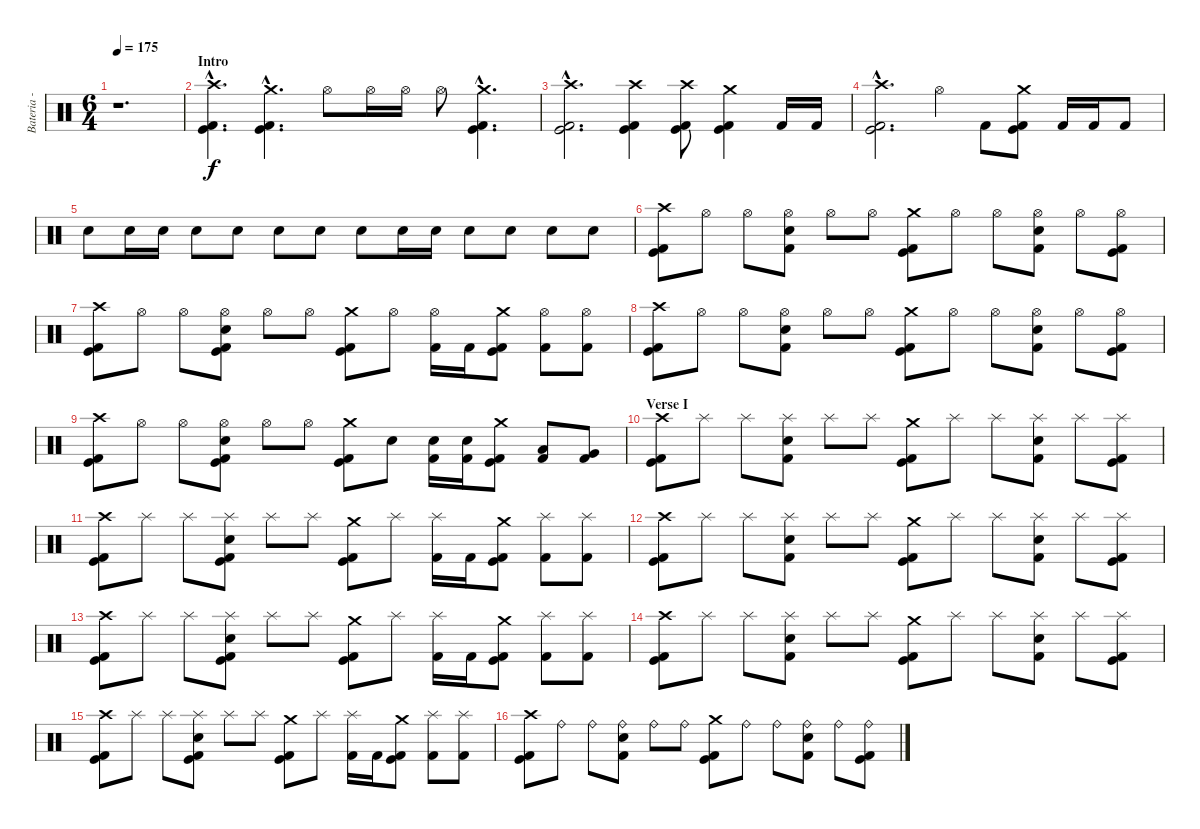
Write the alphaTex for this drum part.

\track ("Bateria - Drums" "Bateria - ") {instrument percussion}
\staff {score}
\articulation defaults
\ts (6 4)
\tempo 175
\clef neutral
\ks c
r.1{d dy f} |
\section ("" "Intro")
("Crash high (hit)"{hac} "Kick (hit)"{hac} "Kick (hit) 2"{hac}).4{d} ("Crash medium (hit)"{hac} "Kick (hit)"{hac} "Kick (hit) 2"{hac}).4{d} "Hi-Hat (open)".8 "Hi-Hat (open)".16 "Hi-Hat (open)".16 "Hi-Hat (open)".8 ("Crash medium (hit)"{hac} "Kick (hit)"{hac} "Kick (hit) 2"{hac}).4{d} |
("Crash high (hit)"{hac} "Kick (hit)"{hac} "Kick (hit) 2"{hac}).2{d} ("Crash high (hit)" "Kick (hit)" "Kick (hit) 2").4 ("Crash high (hit)" "Kick (hit)" "Kick (hit) 2").8 ("Crash medium (hit)" "Kick (hit)" "Kick (hit) 2").4 "Kick (hit) 2".16 "Kick (hit) 2".16 |
("Crash high (hit)"{hac} "Kick (hit)"{hac} "Kick (hit) 2"{hac}).2{d} "Hi-Hat (open)".4 "Kick (hit) 2".8 ("Crash medium (hit)" "Kick (hit)" "Kick (hit) 2").8 "Kick (hit) 2".16 "Kick (hit) 2".16 "Kick (hit) 2".8 |
"Snare (hit) 2".8 "Snare (hit) 2".16 "Snare (hit) 2".16 "Snare (hit) 2".8 "Snare (hit) 2".8 "Snare (hit) 2".8 "Snare (hit) 2".8 "Snare (hit) 2".8 "Snare (hit) 2".16 "Snare (hit) 2".16 "Snare (hit) 2".8 "Snare (hit) 2".8 "Snare (hit) 2".8 "Snare (hit) 2".8 |
("Crash high (hit)" "Kick (hit)" "Kick (hit) 2").8 "Hi-Hat (open)".8 "Hi-Hat (open)".8 ("Hi-Hat (open)" "Snare (hit) 2" "Kick (hit) 2").8 "Hi-Hat (open)".8 "Hi-Hat (open)".8 ("Crash medium (hit)" "Kick (hit)" "Kick (hit) 2").8 "Hi-Hat (open)".8 "Hi-Hat (open)".8 ("Hi-Hat (open)" "Snare (hit) 2" "Kick (hit) 2").8 "Hi-Hat (open)".8 ("Hi-Hat (open)" "Kick (hit)" "Kick (hit) 2").8 |
("Crash high (hit)" "Kick (hit)" "Kick (hit) 2").8 "Hi-Hat (open)".8 "Hi-Hat (open)".8 ("Hi-Hat (open)" "Snare (hit) 2" "Kick (hit)" "Kick (hit) 2").8 "Hi-Hat (open)".8 "Hi-Hat (open)".8 ("Crash medium (hit)" "Kick (hit)" "Kick (hit) 2").8 "Hi-Hat (open)".8 ("Hi-Hat (open)" "Kick (hit) 2").16 "Kick (hit) 2".16 ("Crash medium (hit)" "Kick (hit)" "Kick (hit) 2").8 ("Hi-Hat (open)" "Kick (hit) 2").8 ("Hi-Hat (open)" "Kick (hit) 2").8 |
("Crash high (hit)" "Kick (hit)" "Kick (hit) 2").8 "Hi-Hat (open)".8 "Hi-Hat (open)".8 ("Hi-Hat (open)" "Snare (hit) 2" "Kick (hit) 2").8 "Hi-Hat (open)".8 "Hi-Hat (open)".8 ("Crash medium (hit)" "Kick (hit)" "Kick (hit) 2").8 "Hi-Hat (open)".8 "Hi-Hat (open)".8 ("Hi-Hat (open)" "Snare (hit) 2" "Kick (hit) 2").8 "Hi-Hat (open)".8 ("Hi-Hat (open)" "Kick (hit)" "Kick (hit) 2").8 |
("Crash high (hit)" "Kick (hit)" "Kick (hit) 2").8 "Hi-Hat (open)".8 "Hi-Hat (open)".8 ("Hi-Hat (open)" "Snare (hit) 2" "Kick (hit)" "Kick (hit) 2").8 "Hi-Hat (open)".8 "Hi-Hat (open)".8 ("Crash medium (hit)" "Kick (hit)" "Kick (hit) 2").8 "Snare (hit) 2".8 ("Snare (hit) 2" "Kick (hit) 2").16 ("Snare (hit) 2" "Kick (hit) 2").16 ("Crash medium (hit)" "Kick (hit)" "Kick (hit) 2").8 ("Low Tom (hit)" "Kick (hit) 2").8 ("Very Low Tom (hit)" "Kick (hit) 2").8 |
\section ("" "Verse I")
("Crash high (hit)" "Kick (hit)" "Kick (hit) 2").8 "Splash (hit)".8 "Splash (hit)".8 ("Splash (hit)" "Snare (hit) 2" "Kick (hit) 2").8 "Splash (hit)".8 "Splash (hit)".8 ("Crash medium (hit)" "Kick (hit)" "Kick (hit) 2").8 "Splash (hit)".8 "Splash (hit)".8 ("Splash (hit)" "Snare (hit) 2" "Kick (hit) 2").8 "Splash (hit)".8 ("Splash (hit)" "Kick (hit)" "Kick (hit) 2").8 |
("Crash high (hit)" "Kick (hit)" "Kick (hit) 2").8 "Splash (hit)".8 "Splash (hit)".8 ("Splash (hit)" "Snare (hit) 2" "Kick (hit)" "Kick (hit) 2").8 "Splash (hit)".8 "Splash (hit)".8 ("Crash medium (hit)" "Kick (hit)" "Kick (hit) 2").8 "Splash (hit)".8 ("Splash (hit)" "Kick (hit) 2").16 "Kick (hit) 2".16 ("Crash medium (hit)" "Kick (hit)" "Kick (hit) 2").8 ("Splash (hit)" "Kick (hit) 2").8 ("Splash (hit)" "Kick (hit) 2").8 |
("Crash high (hit)" "Kick (hit)" "Kick (hit) 2").8 "Splash (hit)".8 "Splash (hit)".8 ("Splash (hit)" "Snare (hit) 2" "Kick (hit) 2").8 "Splash (hit)".8 "Splash (hit)".8 ("Crash medium (hit)" "Kick (hit)" "Kick (hit) 2").8 "Splash (hit)".8 "Splash (hit)".8 ("Splash (hit)" "Snare (hit) 2" "Kick (hit) 2").8 "Splash (hit)".8 ("Splash (hit)" "Kick (hit)" "Kick (hit) 2").8 |
("Crash high (hit)" "Kick (hit)" "Kick (hit) 2").8 "Splash (hit)".8 "Splash (hit)".8 ("Splash (hit)" "Snare (hit) 2" "Kick (hit)" "Kick (hit) 2").8 "Splash (hit)".8 "Splash (hit)".8 ("Crash medium (hit)" "Kick (hit)" "Kick (hit) 2").8 "Splash (hit)".8 ("Splash (hit)" "Kick (hit) 2").16 "Kick (hit) 2".16 ("Crash medium (hit)" "Kick (hit)" "Kick (hit) 2").8 ("Splash (hit)" "Kick (hit) 2").8 ("Splash (hit)" "Kick (hit) 2").8 |
("Crash high (hit)" "Kick (hit)" "Kick (hit) 2").8 "Splash (hit)".8 "Splash (hit)".8 ("Splash (hit)" "Snare (hit) 2" "Kick (hit) 2").8 "Splash (hit)".8 "Splash (hit)".8 ("Crash medium (hit)" "Kick (hit)" "Kick (hit) 2").8 "Splash (hit)".8 "Splash (hit)".8 ("Splash (hit)" "Snare (hit) 2" "Kick (hit) 2").8 "Splash (hit)".8 ("Splash (hit)" "Kick (hit)" "Kick (hit) 2").8 |
("Crash high (hit)" "Kick (hit)" "Kick (hit) 2").8 "Splash (hit)".8 "Splash (hit)".8 ("Splash (hit)" "Snare (hit) 2" "Kick (hit)" "Kick (hit) 2").8 "Splash (hit)".8 "Splash (hit)".8 ("Crash medium (hit)" "Kick (hit)" "Kick (hit) 2").8 "Splash (hit)".8 ("Splash (hit)" "Kick (hit) 2").16 "Kick (hit) 2".16 ("Crash medium (hit)" "Kick (hit)" "Kick (hit) 2").8 ("Splash (hit)" "Kick (hit) 2").8 ("Splash (hit)" "Kick (hit) 2").8 |
("Crash high (hit)" "Kick (hit)" "Kick (hit) 2").8 "Ride (bell)".8 "Ride (bell)".8 ("Ride (bell)" "Snare (hit) 2" "Kick (hit) 2").8 "Ride (bell)".8 "Ride (bell)".8 ("Crash medium (hit)" "Kick (hit)" "Kick (hit) 2").8 "Ride (bell)".8 "Ride (bell)".8 ("Ride (bell)" "Snare (hit) 2" "Kick (hit) 2").8 "Ride (bell)".8 ("Ride (bell)" "Kick (hit)" "Kick (hit) 2").8
